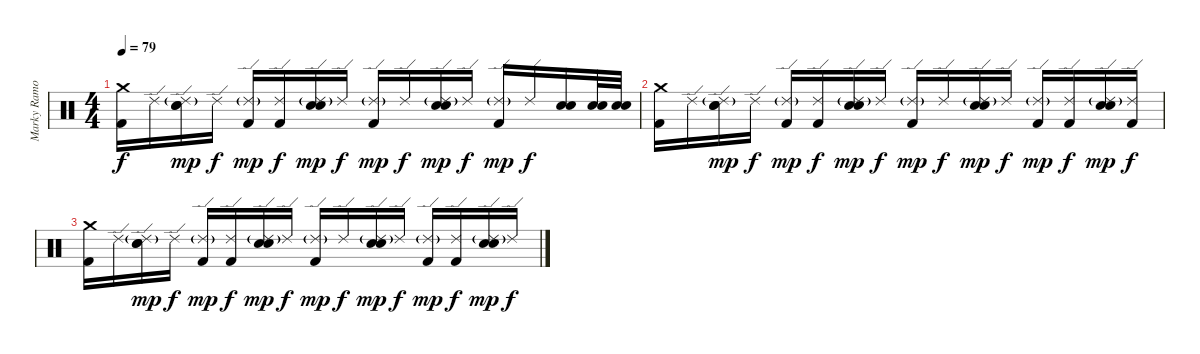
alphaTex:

\track ("Marky Ramone" "Marky Ramo") {instrument percussion}
\staff {score}
\articulation defaults
\ts (4 4)
\tempo 79
\clef neutral
\ks c
("Crash medium (hit)" "Kick (hit) 2").16{dy f} "Ride (edge) 2".16 ("Ride (edge) 2"{g} "Electric Snare (hit)" "Snare (hit) 2").16{dy mp} "Ride (edge) 2".16{dy f} ("Ride (edge) 2"{g} "Kick (hit) 2").16{dy mp} ("Ride (edge) 2" "Kick (hit) 2").16{dy f} ("Ride (edge) 2"{g} "Electric Snare (hit)" "Snare (hit) 2").16{dy mp} "Ride (edge) 2".16{dy f} ("Ride (edge) 2"{g} "Kick (hit) 2").16{dy mp} "Ride (edge) 2".16{dy f} ("Ride (edge) 2"{g} "Electric Snare (hit)" "Snare (hit) 2").16{dy mp} "Ride (edge) 2".16{dy f} ("Ride (edge) 2"{g} "Kick (hit) 2").16{dy mp} "Ride (edge) 2".16{dy f} ("Electric Snare (hit)" "Snare (hit) 2").16 ("Electric Snare (hit)" "Snare (hit) 2").32 ("Electric Snare (hit)" "Snare (hit) 2").32 |
("Crash medium (hit)" "Kick (hit) 2").16 "Ride (edge) 2".16 ("Ride (edge) 2"{g} "Electric Snare (hit)" "Snare (hit) 2").16{dy mp} "Ride (edge) 2".16{dy f} ("Ride (edge) 2"{g} "Kick (hit) 2").16{dy mp} ("Ride (edge) 2" "Kick (hit) 2").16{dy f} ("Ride (edge) 2"{g} "Electric Snare (hit)" "Snare (hit) 2").16{dy mp} "Ride (edge) 2".16{dy f} ("Ride (edge) 2"{g} "Kick (hit) 2").16{dy mp} "Ride (edge) 2".16{dy f} ("Ride (edge) 2"{g} "Electric Snare (hit)" "Snare (hit) 2").16{dy mp} "Ride (edge) 2".16{dy f} ("Ride (edge) 2"{g} "Kick (hit) 2").16{dy mp} ("Ride (edge) 2" "Kick (hit) 2").16{dy f} ("Ride (edge) 2"{g} "Electric Snare (hit)" "Snare (hit) 2").16{dy mp} ("Ride (edge) 2" "Kick (hit) 2").16{dy f} |
("Crash medium (hit)" "Kick (hit) 2").16 "Ride (edge) 2".16 ("Ride (edge) 2"{g} "Electric Snare (hit)" "Snare (hit) 2").16{dy mp} "Ride (edge) 2".16{dy f} ("Ride (edge) 2"{g} "Kick (hit) 2").16{dy mp} ("Ride (edge) 2" "Kick (hit) 2").16{dy f} ("Ride (edge) 2"{g} "Electric Snare (hit)" "Snare (hit) 2").16{dy mp} "Ride (edge) 2".16{dy f} ("Ride (edge) 2"{g} "Kick (hit) 2").16{dy mp} "Ride (edge) 2".16{dy f} ("Ride (edge) 2"{g} "Electric Snare (hit)" "Snare (hit) 2").16{dy mp} "Ride (edge) 2".16{dy f} ("Ride (edge) 2"{g} "Kick (hit) 2").16{dy mp} ("Ride (edge) 2" "Kick (hit) 2").16{dy f} ("Ride (edge) 2"{g} "Electric Snare (hit)" "Snare (hit) 2").16{dy mp} "Ride (edge) 2".16{dy f}
